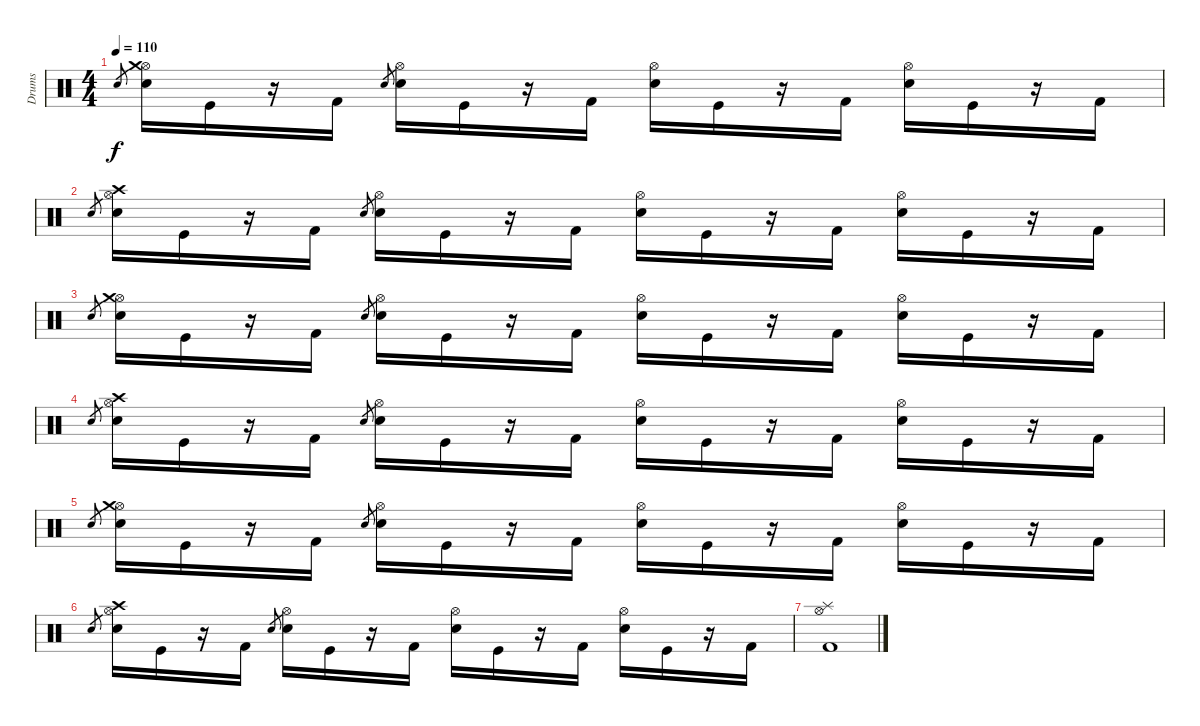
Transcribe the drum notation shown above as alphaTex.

\track ("Drums" "Drums") {instrument percussion}
\staff {score}
\articulation defaults
\ts (4 4)
\tempo 110
\clef neutral
\ks c "Electric Snare (hit)"{sl}.8{gr dy f}
("Hi-Hat (open)" "Crash medium (hit)" "Electric Snare (hit)").16 "Kick (hit)".16 r.16 "Kick (hit) 2".16 "Electric Snare (hit)"{sl}.8{gr} ("Hi-Hat (open)" "Electric Snare (hit)").16 "Kick (hit)".16 r.16 "Kick (hit) 2".16 ("Hi-Hat (open)" "Electric Snare (hit)").16 "Kick (hit)".16 r.16 "Kick (hit) 2".16 ("Hi-Hat (open)" "Electric Snare (hit)").16 "Kick (hit)".16 r.16 "Kick (hit) 2".16 |
"Electric Snare (hit)"{sl}.8{gr} ("Hi-Hat (open)" "Crash high (hit)" "Electric Snare (hit)").16 "Kick (hit)".16 r.16 "Kick (hit) 2".16 "Electric Snare (hit)"{sl}.8{gr} ("Hi-Hat (open)" "Electric Snare (hit)").16 "Kick (hit)".16 r.16 "Kick (hit) 2".16 ("Hi-Hat (open)" "Electric Snare (hit)").16 "Kick (hit)".16 r.16 "Kick (hit) 2".16 ("Hi-Hat (open)" "Electric Snare (hit)").16 "Kick (hit)".16 r.16 "Kick (hit) 2".16 |
"Electric Snare (hit)"{sl}.8{gr} ("Hi-Hat (open)" "Crash medium (hit)" "Electric Snare (hit)").16 "Kick (hit)".16 r.16 "Kick (hit) 2".16 "Electric Snare (hit)"{sl}.8{gr} ("Hi-Hat (open)" "Electric Snare (hit)").16 "Kick (hit)".16 r.16 "Kick (hit) 2".16 ("Hi-Hat (open)" "Electric Snare (hit)").16 "Kick (hit)".16 r.16 "Kick (hit) 2".16 ("Hi-Hat (open)" "Electric Snare (hit)").16 "Kick (hit)".16 r.16 "Kick (hit) 2".16 |
"Electric Snare (hit)"{sl}.8{gr} ("Hi-Hat (open)" "Crash high (hit)" "Electric Snare (hit)").16 "Kick (hit)".16 r.16 "Kick (hit) 2".16 "Electric Snare (hit)"{sl}.8{gr} ("Hi-Hat (open)" "Electric Snare (hit)").16 "Kick (hit)".16 r.16 "Kick (hit) 2".16 ("Hi-Hat (open)" "Electric Snare (hit)").16 "Kick (hit)".16 r.16 "Kick (hit) 2".16 ("Hi-Hat (open)" "Electric Snare (hit)").16 "Kick (hit)".16 r.16 "Kick (hit) 2".16 |
"Electric Snare (hit)"{sl}.8{gr} ("Hi-Hat (open)" "Crash medium (hit)" "Electric Snare (hit)").16 "Kick (hit)".16 r.16 "Kick (hit) 2".16 "Electric Snare (hit)"{sl}.8{gr} ("Hi-Hat (open)" "Electric Snare (hit)").16 "Kick (hit)".16 r.16 "Kick (hit) 2".16 ("Hi-Hat (open)" "Electric Snare (hit)").16 "Kick (hit)".16 r.16 "Kick (hit) 2".16 ("Hi-Hat (open)" "Electric Snare (hit)").16 "Kick (hit)".16 r.16 "Kick (hit) 2".16 |
"Electric Snare (hit)"{sl}.8{gr} ("Hi-Hat (open)" "Crash high (hit)" "Electric Snare (hit)").16 "Kick (hit)".16 r.16 "Kick (hit) 2".16 "Electric Snare (hit)"{sl}.8{gr} ("Hi-Hat (open)" "Electric Snare (hit)").16 "Kick (hit)".16 r.16 "Kick (hit) 2".16 ("Hi-Hat (open)" "Electric Snare (hit)").16 "Kick (hit)".16 r.16 "Kick (hit) 2".16 ("Hi-Hat (open)" "Electric Snare (hit)").16 "Kick (hit)".16 r.16 "Kick (hit) 2".16 |
("Splash (hit)" "Hi-Hat (open)" "Kick (hit) 2").1
